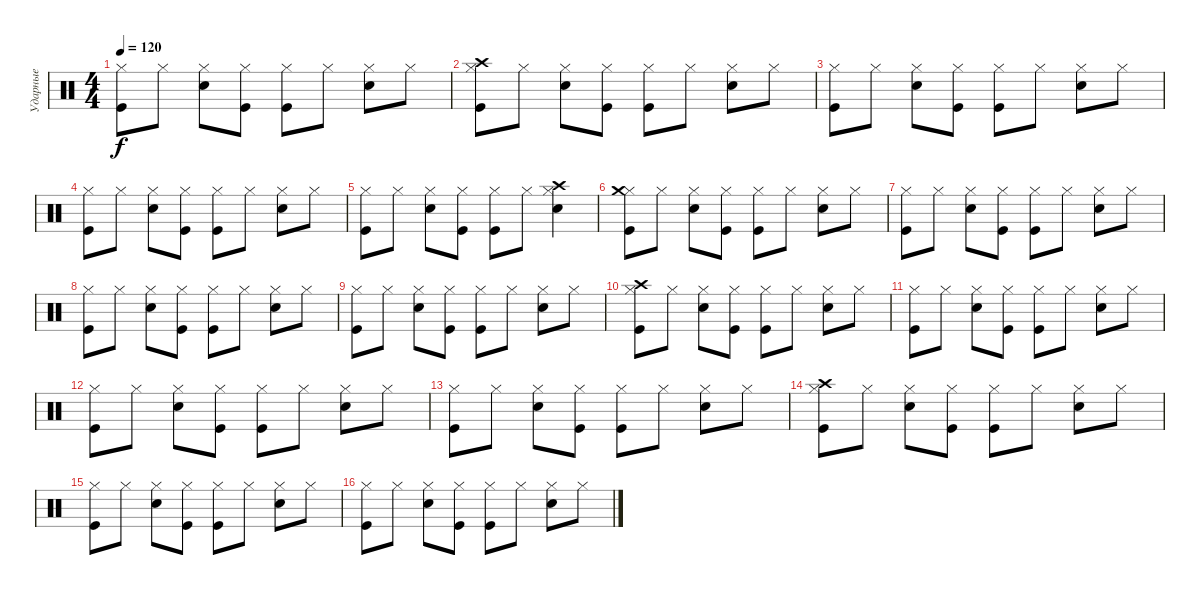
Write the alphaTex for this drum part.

\track ("Ударные" "Ударные") {instrument percussion}
\staff {score}
\articulation defaults
\ts (4 4)
\tempo 120
\clef neutral
\ks c
("Kick (hit)" "Hi-Hat (closed)").8{dy f} "Hi-Hat (closed)".8 ("Snare (hit) 2" "Hi-Hat (closed)").8 ("Kick (hit)" "Hi-Hat (closed)").8 ("Kick (hit)" "Hi-Hat (closed)").8 "Hi-Hat (closed)".8 ("Snare (hit) 2" "Hi-Hat (closed)").8 "Hi-Hat (closed)".8 |
("Kick (hit)" "Hi-Hat (closed)" "Crash high (hit)").8 "Hi-Hat (closed)".8 ("Snare (hit) 2" "Hi-Hat (closed)").8 ("Kick (hit)" "Hi-Hat (closed)").8 ("Kick (hit)" "Hi-Hat (closed)").8 "Hi-Hat (closed)".8 ("Snare (hit) 2" "Hi-Hat (closed)").8 "Hi-Hat (closed)".8 |
("Kick (hit)" "Hi-Hat (closed)").8 "Hi-Hat (closed)".8 ("Snare (hit) 2" "Hi-Hat (closed)").8 ("Kick (hit)" "Hi-Hat (closed)").8 ("Kick (hit)" "Hi-Hat (closed)").8 "Hi-Hat (closed)".8 ("Snare (hit) 2" "Hi-Hat (closed)").8 "Hi-Hat (closed)".8 |
("Kick (hit)" "Hi-Hat (closed)").8 "Hi-Hat (closed)".8 ("Snare (hit) 2" "Hi-Hat (closed)").8 ("Kick (hit)" "Hi-Hat (closed)").8 ("Kick (hit)" "Hi-Hat (closed)").8 "Hi-Hat (closed)".8 ("Snare (hit) 2" "Hi-Hat (closed)").8 "Hi-Hat (closed)".8 |
("Kick (hit)" "Hi-Hat (closed)").8 "Hi-Hat (closed)".8 ("Snare (hit) 2" "Hi-Hat (closed)").8 ("Kick (hit)" "Hi-Hat (closed)").8 ("Kick (hit)" "Hi-Hat (closed)").8 "Hi-Hat (closed)".8 ("Snare (hit) 2" "Hi-Hat (closed)" "Crash high (hit)").4 |
("Kick (hit)" "Hi-Hat (closed)" "Crash medium (hit)").8 "Hi-Hat (closed)".8 ("Snare (hit) 2" "Hi-Hat (closed)").8 ("Kick (hit)" "Hi-Hat (closed)").8 ("Kick (hit)" "Hi-Hat (closed)").8 "Hi-Hat (closed)".8 ("Snare (hit) 2" "Hi-Hat (closed)").8 "Hi-Hat (closed)".8 |
("Kick (hit)" "Hi-Hat (closed)").8 "Hi-Hat (closed)".8 ("Snare (hit) 2" "Hi-Hat (closed)").8 ("Kick (hit)" "Hi-Hat (closed)").8 ("Kick (hit)" "Hi-Hat (closed)").8 "Hi-Hat (closed)".8 ("Snare (hit) 2" "Hi-Hat (closed)").8 "Hi-Hat (closed)".8 |
("Kick (hit)" "Hi-Hat (closed)").8 "Hi-Hat (closed)".8 ("Snare (hit) 2" "Hi-Hat (closed)").8 ("Kick (hit)" "Hi-Hat (closed)").8 ("Kick (hit)" "Hi-Hat (closed)").8 "Hi-Hat (closed)".8 ("Snare (hit) 2" "Hi-Hat (closed)").8 "Hi-Hat (closed)".8 |
("Kick (hit)" "Hi-Hat (closed)").8 "Hi-Hat (closed)".8 ("Snare (hit) 2" "Hi-Hat (closed)").8 ("Kick (hit)" "Hi-Hat (closed)").8 ("Kick (hit)" "Hi-Hat (closed)").8 "Hi-Hat (closed)".8 ("Snare (hit) 2" "Hi-Hat (closed)").8 "Hi-Hat (closed)".8 |
("Kick (hit)" "Hi-Hat (closed)" "Crash high (hit)").8 "Hi-Hat (closed)".8 ("Snare (hit) 2" "Hi-Hat (closed)").8 ("Kick (hit)" "Hi-Hat (closed)").8 ("Kick (hit)" "Hi-Hat (closed)").8 "Hi-Hat (closed)".8 ("Snare (hit) 2" "Hi-Hat (closed)").8 "Hi-Hat (closed)".8 |
("Kick (hit)" "Hi-Hat (closed)").8 "Hi-Hat (closed)".8 ("Snare (hit) 2" "Hi-Hat (closed)").8 ("Kick (hit)" "Hi-Hat (closed)").8 ("Kick (hit)" "Hi-Hat (closed)").8 "Hi-Hat (closed)".8 ("Snare (hit) 2" "Hi-Hat (closed)").8 "Hi-Hat (closed)".8 |
("Kick (hit)" "Hi-Hat (closed)").8 "Hi-Hat (closed)".8 ("Snare (hit) 2" "Hi-Hat (closed)").8 ("Kick (hit)" "Hi-Hat (closed)").8 ("Kick (hit)" "Hi-Hat (closed)").8 "Hi-Hat (closed)".8 ("Snare (hit) 2" "Hi-Hat (closed)").8 "Hi-Hat (closed)".8 |
("Kick (hit)" "Hi-Hat (closed)").8 "Hi-Hat (closed)".8 ("Snare (hit) 2" "Hi-Hat (closed)").8 ("Kick (hit)" "Hi-Hat (closed)").8 ("Kick (hit)" "Hi-Hat (closed)").8 "Hi-Hat (closed)".8 ("Snare (hit) 2" "Hi-Hat (closed)").8 "Hi-Hat (closed)".8 |
("Kick (hit)" "Hi-Hat (closed)" "Crash high (hit)").8 "Hi-Hat (closed)".8 ("Snare (hit) 2" "Hi-Hat (closed)").8 ("Kick (hit)" "Hi-Hat (closed)").8 ("Kick (hit)" "Hi-Hat (closed)").8 "Hi-Hat (closed)".8 ("Snare (hit) 2" "Hi-Hat (closed)").8 "Hi-Hat (closed)".8 |
("Kick (hit)" "Hi-Hat (closed)").8 "Hi-Hat (closed)".8 ("Snare (hit) 2" "Hi-Hat (closed)").8 ("Kick (hit)" "Hi-Hat (closed)").8 ("Kick (hit)" "Hi-Hat (closed)").8 "Hi-Hat (closed)".8 ("Snare (hit) 2" "Hi-Hat (closed)").8 "Hi-Hat (closed)".8 |
("Kick (hit)" "Hi-Hat (closed)").8 "Hi-Hat (closed)".8 ("Snare (hit) 2" "Hi-Hat (closed)").8 ("Kick (hit)" "Hi-Hat (closed)").8 ("Kick (hit)" "Hi-Hat (closed)").8 "Hi-Hat (closed)".8 ("Snare (hit) 2" "Hi-Hat (closed)").8 "Hi-Hat (closed)".8
